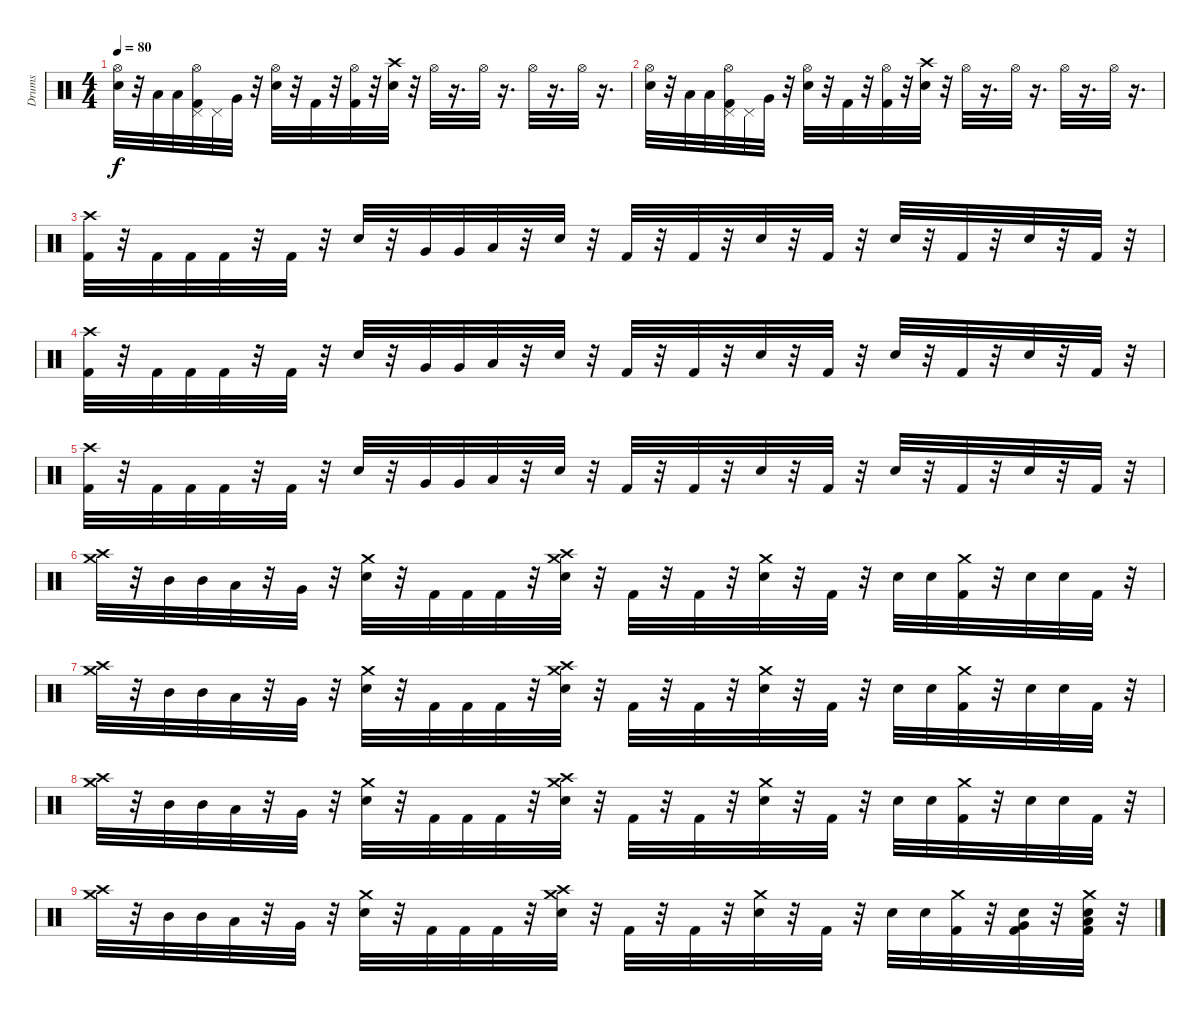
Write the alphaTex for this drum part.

\track ("Drums" "Drums") {instrument percussion}
\staff {score}
\articulation defaults
\ts (4 4)
\tempo 80
\clef neutral
\ks c
("Hi-Hat (open)" "Electric Snare (hit)").32{dy f} r.32 "Low Tom (hit)".32 "Low Tom (hit)".32 ("Hi-Hat (open)" "Pedal Hi-Hat (hit)" "Kick (hit) 2").32 "Pedal Hi-Hat (hit)".32 "Very Low Tom (hit)".32 r.32 ("Hi-Hat (open)" "Electric Snare (hit)").32 r.32 "Kick (hit) 2".32 r.32 ("Hi-Hat (open)" "Kick (hit) 2").32 r.32 ("Crash high (hit)" "Electric Snare (hit)").32 r.32 "Hi-Hat (open)".32 r.16{d} "Hi-Hat (open)".32 r.16{d} "Hi-Hat (open)".32 r.16{d} "Hi-Hat (open)".32 r.16{d} |
("Hi-Hat (open)" "Electric Snare (hit)").32 r.32 "Low Tom (hit)".32 "Low Tom (hit)".32 ("Hi-Hat (open)" "Pedal Hi-Hat (hit)" "Kick (hit) 2").32 "Pedal Hi-Hat (hit)".32 "Very Low Tom (hit)".32 r.32 ("Hi-Hat (open)" "Electric Snare (hit)").32 r.32 "Kick (hit) 2".32 r.32 ("Hi-Hat (open)" "Kick (hit) 2").32 r.32 ("Crash high (hit)" "Electric Snare (hit)").32 r.32 "Hi-Hat (open)".32 r.16{d} "Hi-Hat (open)".32 r.16{d} "Hi-Hat (open)".32 r.16{d} "Hi-Hat (open)".32 r.16{d} |
("Crash high (hit)" "Kick (hit) 2").32 r.32 "Kick (hit) 2".32 "Kick (hit) 2".32 "Kick (hit) 2".32 r.32 "Kick (hit) 2".32 r.32 "Electric Snare (hit)".32 r.32 "Very Low Tom (hit)".32 "Very Low Tom (hit)".32 "Low Floor Tom (hit)".32 r.32 "Electric Snare (hit)".32 r.32 "Kick (hit) 2".32 r.32 "Kick (hit) 2".32 r.32 "Electric Snare (hit)".32 r.32 "Kick (hit) 2".32 r.32 "Electric Snare (hit)".32 r.32 "Kick (hit) 2".32 r.32 "Electric Snare (hit)".32 r.32 "Kick (hit) 2".32 r.32 |
("Crash high (hit)" "Kick (hit) 2").32 r.32 "Kick (hit) 2".32 "Kick (hit) 2".32 "Kick (hit) 2".32 r.32 "Kick (hit) 2".32 r.32 "Electric Snare (hit)".32 r.32 "Very Low Tom (hit)".32 "Very Low Tom (hit)".32 "Low Floor Tom (hit)".32 r.32 "Electric Snare (hit)".32 r.32 "Kick (hit) 2".32 r.32 "Kick (hit) 2".32 r.32 "Electric Snare (hit)".32 r.32 "Kick (hit) 2".32 r.32 "Electric Snare (hit)".32 r.32 "Kick (hit) 2".32 r.32 "Electric Snare (hit)".32 r.32 "Kick (hit) 2".32 r.32 |
("Crash high (hit)" "Kick (hit) 2").32 r.32 "Kick (hit) 2".32 "Kick (hit) 2".32 "Kick (hit) 2".32 r.32 "Kick (hit) 2".32 r.32 "Electric Snare (hit)".32 r.32 "Very Low Tom (hit)".32 "Very Low Tom (hit)".32 "Low Floor Tom (hit)".32 r.32 "Electric Snare (hit)".32 r.32 "Kick (hit) 2".32 r.32 "Kick (hit) 2".32 r.32 "Electric Snare (hit)".32 r.32 "Kick (hit) 2".32 r.32 "Electric Snare (hit)".32 r.32 "Kick (hit) 2".32 r.32 "Electric Snare (hit)".32 r.32 "Kick (hit) 2".32 r.32 |
("Crash medium (hit)" "Crash high (hit)").32 r.32 "Mid Tom (hit)".32 "Mid Tom (hit)".32 "Low Tom (hit)".32 r.32 "Very Low Tom (hit)".32 r.32 ("Crash medium (hit)" "Electric Snare (hit)").32 r.32 "Kick (hit) 2".32 "Kick (hit) 2".32 "Kick (hit) 2".32 r.32 ("Electric Snare (hit)" "Crash medium (hit)" "Crash high (hit)").32 r.32 "Kick (hit) 2".32 r.32 "Kick (hit) 2".32 r.32 ("Electric Snare (hit)" "Crash medium (hit)").32 r.32 "Kick (hit) 2".32 r.32 "Electric Snare (hit)".32 "Electric Snare (hit)".32 ("Kick (hit) 2" "Crash medium (hit)").32 r.32 "Electric Snare (hit)".32 "Electric Snare (hit)".32 "Kick (hit) 2".32 r.32 |
("Crash high (hit)" "Crash medium (hit)").32 r.32 "Mid Tom (hit)".32 "Mid Tom (hit)".32 "Low Tom (hit)".32 r.32 "Very Low Tom (hit)".32 r.32 ("Electric Snare (hit)" "Crash medium (hit)").32 r.32 "Kick (hit) 2".32 "Kick (hit) 2".32 "Kick (hit) 2".32 r.32 ("Electric Snare (hit)" "Crash high (hit)" "Crash medium (hit)").32 r.32 "Kick (hit) 2".32 r.32 "Kick (hit) 2".32 r.32 ("Electric Snare (hit)" "Crash medium (hit)").32 r.32 "Kick (hit) 2".32 r.32 "Electric Snare (hit)".32 "Electric Snare (hit)".32 ("Kick (hit) 2" "Crash medium (hit)").32 r.32 "Electric Snare (hit)".32 "Electric Snare (hit)".32 "Kick (hit) 2".32 r.32 |
("Crash medium (hit)" "Crash high (hit)").32 r.32 "Mid Tom (hit)".32 "Mid Tom (hit)".32 "Low Tom (hit)".32 r.32 "Very Low Tom (hit)".32 r.32 ("Crash medium (hit)" "Electric Snare (hit)").32 r.32 "Kick (hit) 2".32 "Kick (hit) 2".32 "Kick (hit) 2".32 r.32 ("Crash medium (hit)" "Electric Snare (hit)" "Crash high (hit)").32 r.32 "Kick (hit) 2".32 r.32 "Kick (hit) 2".32 r.32 ("Crash medium (hit)" "Electric Snare (hit)").32 r.32 "Kick (hit) 2".32 r.32 "Electric Snare (hit)".32 "Electric Snare (hit)".32 ("Crash medium (hit)" "Kick (hit) 2").32 r.32 "Electric Snare (hit)".32 "Electric Snare (hit)".32 "Kick (hit) 2".32 r.32 |
("Crash medium (hit)" "Crash high (hit)").32 r.32 "Mid Tom (hit)".32 "Mid Tom (hit)".32 "Low Tom (hit)".32 r.32 "Very Low Tom (hit)".32 r.32 ("Crash medium (hit)" "Electric Snare (hit)").32 r.32 "Kick (hit) 2".32 "Kick (hit) 2".32 "Kick (hit) 2".32 r.32 ("Crash medium (hit)" "Electric Snare (hit)" "Crash high (hit)").32 r.32 "Kick (hit) 2".32 r.32 "Kick (hit) 2".32 r.32 ("Crash medium (hit)" "Electric Snare (hit)").32 r.32 "Kick (hit) 2".32 r.32 "Electric Snare (hit)".32 "Electric Snare (hit)".32 ("Crash medium (hit)" "Kick (hit) 2").32 r.32 ("Very Low Tom (hit)" "Electric Snare (hit)" "Kick (hit) 2").32 r.32 ("Crash medium (hit)" "Low Tom (hit)" "Electric Snare (hit)" "Kick (hit) 2").32 r.32
